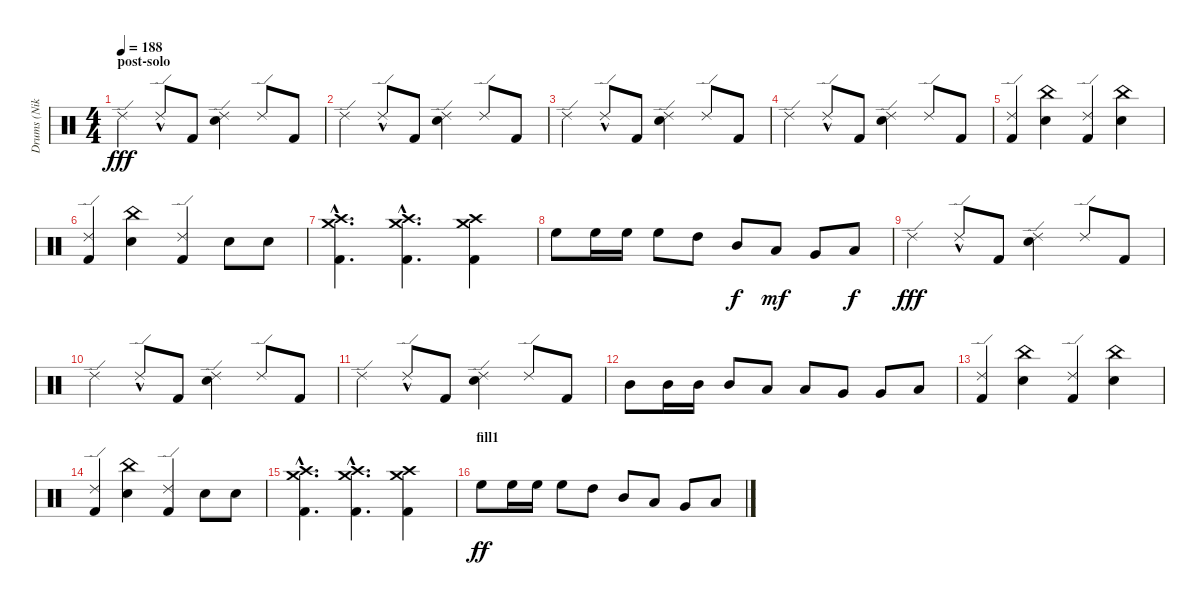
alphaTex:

\track ("Drums (Niko)" "Drums (Nik") {instrument percussion}
\staff {score}
\articulation defaults
\ts (4 4)
\section ("" "post-solo")
\tempo 188
\clef neutral
\ks c "Ride (edge) 2".4{dy fff} "Ride (edge) 2"{hac}.8 "Kick (hit) 2".8
("Ride (edge) 2" "Electric Snare (hit)").4 "Ride (edge) 2".8 "Kick (hit) 2".8 |
"Ride (edge) 2".4 "Ride (edge) 2"{hac}.8 "Kick (hit) 2".8 ("Ride (edge) 2" "Electric Snare (hit)").4 "Ride (edge) 2".8 "Kick (hit) 2".8 |
"Ride (edge) 2".4 "Ride (edge) 2"{hac}.8 "Kick (hit) 2".8 ("Ride (edge) 2" "Electric Snare (hit)").4 "Ride (edge) 2".8 "Kick (hit) 2".8 |
"Ride (edge) 2".4 "Ride (edge) 2"{hac}.8 "Kick (hit) 2".8 ("Ride (edge) 2" "Electric Snare (hit)").4 "Ride (edge) 2".8 "Kick (hit) 2".8 |
("Ride (edge) 2" "Kick (hit) 2").4 ("China (hit)" "Electric Snare (hit)").4 ("Ride (edge) 2" "Kick (hit) 2").4 ("China (hit)" "Electric Snare (hit)").4 |
("Ride (edge) 2" "Kick (hit) 2").4 ("China (hit)" "Electric Snare (hit)").4 ("Ride (edge) 2" "Kick (hit) 2").4 "Electric Snare (hit)".8 "Electric Snare (hit)".8 |
("Crash medium (hit)"{hac} "Crash high (hit)"{hac} "Kick (hit) 2"{hac}).4{d} ("Crash medium (hit)"{hac} "Crash high (hit)"{hac} "Kick (hit) 2"{hac}).4{d} ("Crash medium (hit)" "Crash high (hit)" "Kick (hit) 2").4 |
"High Floor Tom (hit)".8 "High Floor Tom (hit)".16 "High Floor Tom (hit)".16 "High Floor Tom (hit)".8 "High Tom (hit)".8 "Mid Tom (hit)".8{dy f} "Low Tom (hit)".8{dy mf} "Very Low Tom (hit)".8 "Low Floor Tom (hit)".8{dy f} |
"Ride (edge) 2".4{dy fff} "Ride (edge) 2"{hac}.8 "Kick (hit) 2".8 ("Ride (edge) 2" "Electric Snare (hit)").4 "Ride (edge) 2".8 "Kick (hit) 2".8 |
"Ride (edge) 2".4 "Ride (edge) 2"{hac}.8 "Kick (hit) 2".8 ("Ride (edge) 2" "Electric Snare (hit)").4 "Ride (edge) 2".8 "Kick (hit) 2".8 |
"Ride (edge) 2".4 "Ride (edge) 2"{hac}.8 "Kick (hit) 2".8 ("Ride (edge) 2" "Electric Snare (hit)").4 "Ride (edge) 2".8 "Kick (hit) 2".8 |
"Mid Tom (hit)".8 "Mid Tom (hit)".16 "Mid Tom (hit)".16 "Mid Tom (hit)".8 "Low Tom (hit)".8 "Low Tom (hit)".8 "Very Low Tom (hit)".8 "Very Low Tom (hit)".8 "Low Floor Tom (hit)".8 |
("Ride (edge) 2" "Kick (hit) 2").4 ("China (hit)" "Electric Snare (hit)").4 ("Ride (edge) 2" "Kick (hit) 2").4 ("China (hit)" "Electric Snare (hit)").4 |
("Ride (edge) 2" "Kick (hit) 2").4 ("China (hit)" "Electric Snare (hit)").4 ("Ride (edge) 2" "Kick (hit) 2").4 "Electric Snare (hit)".8 "Electric Snare (hit)".8 |
("Crash medium (hit)"{hac} "Crash high (hit)"{hac} "Kick (hit) 2"{hac}).4{d} ("Crash medium (hit)"{hac} "Crash high (hit)"{hac} "Kick (hit) 2"{hac}).4{d} ("Crash medium (hit)" "Crash high (hit)" "Kick (hit) 2").4 |
\section ("" "fill1")
"High Floor Tom (hit)".8{dy ff} "High Floor Tom (hit)".16 "High Floor Tom (hit)".16 "High Floor Tom (hit)".8 "High Tom (hit)".8 "Mid Tom (hit)".8 "Low Tom (hit)".8 "Very Low Tom (hit)".8 "Low Floor Tom (hit)".8
